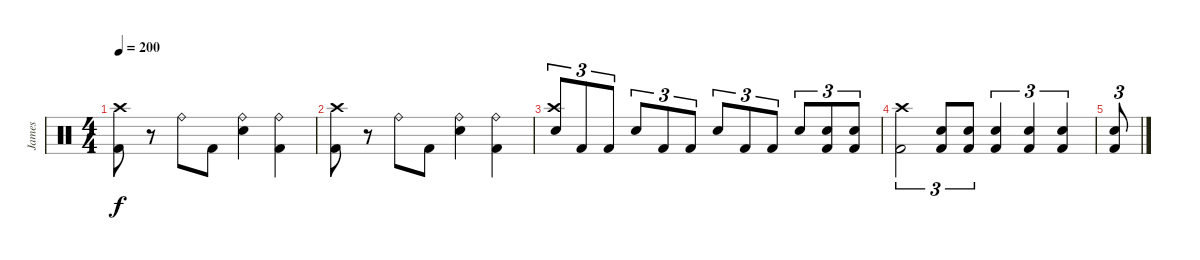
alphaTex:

\track ("James" "James") {instrument percussion}
\staff {score}
\articulation defaults
\ts (4 4)
\tempo 200
\clef neutral
\ks c
("Crash high (hit)" "Kick (hit) 2").8{dy f} r.8 "Ride (bell)".8 "Kick (hit) 2".8 ("Ride (bell)" "Electric Snare (hit)").4 ("Ride (bell)" "Kick (hit) 2").4 |
("Crash high (hit)" "Kick (hit) 2").8 r.8 "Ride (bell)".8 "Kick (hit) 2".8 ("Ride (bell)" "Electric Snare (hit)").4 ("Ride (bell)" "Kick (hit) 2").4 |
("Electric Snare (hit)" "Crash high (hit)").8{tu (3 2) beam Up} "Kick (hit) 2".8{tu (3 2)} "Kick (hit) 2".8{tu (3 2)} "Electric Snare (hit)".8{tu (3 2) beam Up} "Kick (hit) 2".8{tu (3 2)} "Kick (hit) 2".8{tu (3 2)} "Electric Snare (hit)".8{tu (3 2) beam Up} "Kick (hit) 2".8{tu (3 2)} "Kick (hit) 2".8{tu (3 2)} "Electric Snare (hit)".8{tu (3 2) beam Up} ("Kick (hit) 2" "Electric Snare (hit)").8{tu (3 2)} ("Electric Snare (hit)" "Kick (hit) 2").8{tu (3 2)} |
("Crash high (hit)" "Kick (hit) 2").2{tu (3 2)} ("Electric Snare (hit)" "Kick (hit) 2").8{tu (3 2)} ("Electric Snare (hit)" "Kick (hit) 2").8{tu (3 2)} ("Electric Snare (hit)" "Kick (hit) 2").4{tu (3 2)} ("Electric Snare (hit)" "Kick (hit) 2").4{tu (3 2)} ("Electric Snare (hit)" "Kick (hit) 2").4{tu (3 2)} |
("Electric Snare (hit)" "Kick (hit) 2").8{tu (3 2)}
